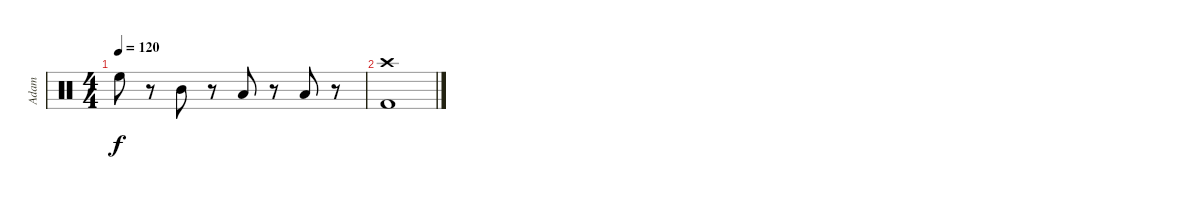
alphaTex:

\track ("Adam" "Adam") {instrument percussion}
\staff {score}
\articulation defaults
\ts (4 4)
\tempo 120
\clef neutral
\ks c "High Floor Tom (hit)".8{dy f}
r.8 "Mid Tom (hit)".8 r.8 "Low Tom (hit)".8 r.8 "Low Floor Tom (hit)".8 r.8 |
("Crash high (hit)" "Kick (hit) 2").1
